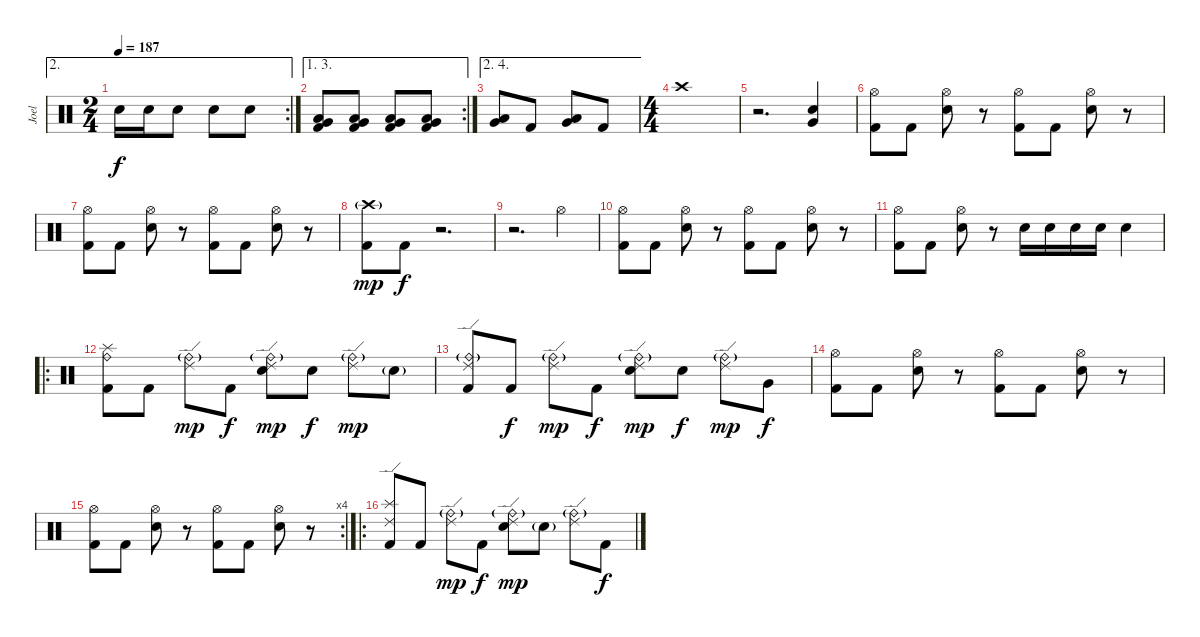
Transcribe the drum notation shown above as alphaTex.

\track ("Joel" "Joel") {instrument percussion}
\staff {score}
\articulation defaults
\ae 2
\rc 2
\ts (2 4)
\tempo 187
\clef neutral
\ks c "Snare (hit) 2".16{dy f} "Snare (hit) 2".16 "Snare (hit) 2".8 "Snare (hit) 2".8 "Snare (hit) 2".8
|
\ae (1 3)
\rc 2
("Low Tom (hit)" "Very Low Tom (hit)" "Kick (hit) 2").8 ("Low Tom (hit)" "Very Low Tom (hit)" "Kick (hit) 2").8 ("Low Tom (hit)" "Very Low Tom (hit)" "Kick (hit) 2").8 ("Low Tom (hit)" "Very Low Tom (hit)" "Kick (hit) 2").8 |
\ae (2 4)
("Low Tom (hit)" "Very Low Tom (hit)").8 "Kick (hit) 2".8 ("Low Tom (hit)" "Very Low Tom (hit)").8 "Kick (hit) 2".8 |
\ts (4 4)
"Crash high (hit)".1 |
r.2{d} ("Snare (hit) 2" "Very Low Tom (hit)").4 |
("Hi-Hat (open)" "Kick (hit) 2").8 "Kick (hit) 2".8 ("Hi-Hat (open)" "Snare (hit) 2").8 r.8 ("Hi-Hat (open)" "Kick (hit) 2").8 "Kick (hit) 2".8 ("Hi-Hat (open)" "Snare (hit) 2").8 r.8 |
("Hi-Hat (open)" "Kick (hit) 2").8 "Kick (hit) 2".8 ("Hi-Hat (open)" "Snare (hit) 2").8 r.8 ("Hi-Hat (open)" "Kick (hit) 2").8 "Kick (hit) 2".8 ("Hi-Hat (open)" "Snare (hit) 2").8 r.8 |
("Crash high (hit)"{g} "Kick (hit) 2").8{dy mp} "Kick (hit) 2".8{dy f} r.2{d} |
r.2{d} "Hi-Hat (open)".4 |
("Hi-Hat (open)" "Kick (hit) 2").8 "Kick (hit) 2".8 ("Hi-Hat (open)" "Snare (hit) 2").8 r.8 ("Hi-Hat (open)" "Kick (hit) 2").8 "Kick (hit) 2".8 ("Hi-Hat (open)" "Snare (hit) 2").8 r.8 |
("Hi-Hat (open)" "Kick (hit) 2").8 "Kick (hit) 2".8 ("Hi-Hat (open)" "Snare (hit) 2").8 r.8 "Snare (hit) 2".16 "Snare (hit) 2".16 "Snare (hit) 2".16 "Snare (hit) 2".16 "Snare (hit) 2".4 |
\ro
("Splash (hit)" "Ride (bell)" "Kick (hit) 2").8 "Kick (hit) 2".8 ("Ride (bell)"{g} "Ride (edge) 2").8{dy mp} "Kick (hit) 2".8{dy f} ("Ride (bell)"{g} "Ride (edge) 2" "Snare (hit) 2").8{dy mp} "Snare (hit) 2".8{dy f} ("Ride (bell)"{g} "Ride (edge) 2").8{dy mp} "Snare (hit) 2"{g}.8 |
("Ride (bell)"{g} "Ride (edge) 2" "Kick (hit) 2").8 "Kick (hit) 2".8{dy f} ("Ride (bell)"{g} "Ride (edge) 2").8{dy mp} "Kick (hit) 2".8{dy f} ("Ride (bell)"{g} "Ride (edge) 2" "Snare (hit) 2").8{dy mp} "Snare (hit) 2".8{dy f} ("Ride (bell)"{g} "Ride (edge) 2").8{dy mp} "Very Low Tom (hit)".8{dy f} |
("Hi-Hat (open)" "Kick (hit) 2").8 "Kick (hit) 2".8 ("Hi-Hat (open)" "Snare (hit) 2").8 r.8 ("Hi-Hat (open)" "Kick (hit) 2").8 "Kick (hit) 2".8 ("Hi-Hat (open)" "Snare (hit) 2").8 r.8 |
\rc 4
("Hi-Hat (open)" "Kick (hit) 2").8 "Kick (hit) 2".8 ("Hi-Hat (open)" "Snare (hit) 2").8 r.8 ("Hi-Hat (open)" "Kick (hit) 2").8 "Kick (hit) 2".8 ("Hi-Hat (open)" "Snare (hit) 2").8 r.8 |
\ro
("Splash (hit)" "Ride (edge) 2" "Kick (hit) 2").8 "Kick (hit) 2".8 ("Ride (bell)"{g} "Ride (edge) 2").8{dy mp} "Kick (hit) 2".8{dy f} ("Ride (bell)"{g} "Ride (edge) 2" "Snare (hit) 2").8{dy mp} "Snare (hit) 2"{g}.8 ("Ride (bell)"{g} "Ride (edge) 2").8 "Kick (hit) 2".8{dy f}
